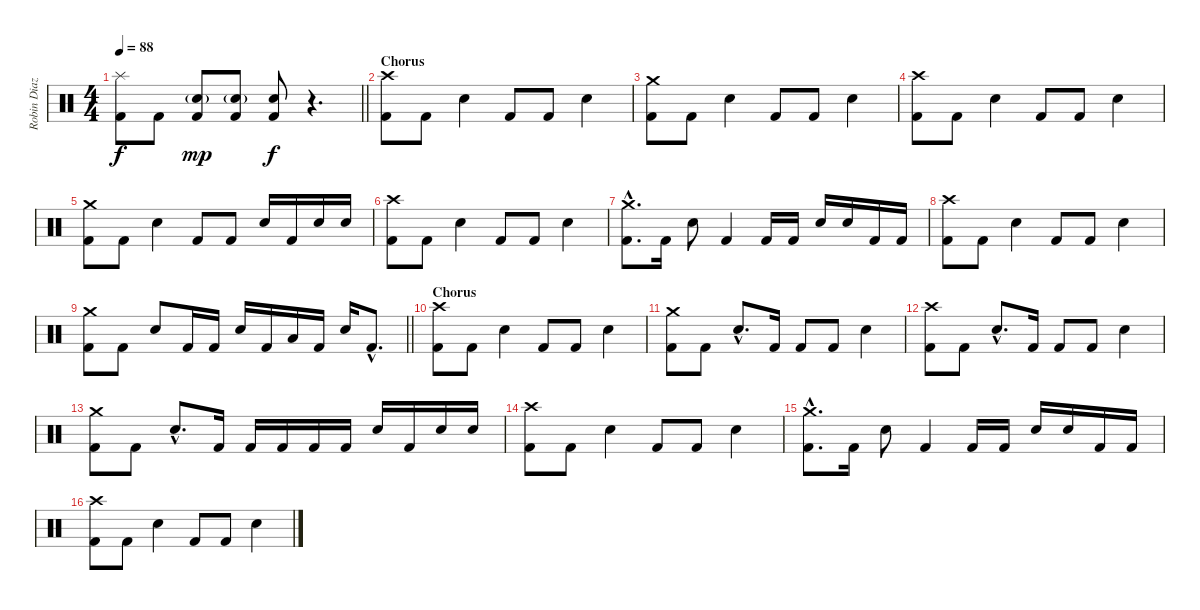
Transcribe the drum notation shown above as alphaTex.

\track ("Robin Diaz (Drums)" "Robin Diaz") {instrument percussion}
\staff {score}
\articulation defaults
\ts (4 4)
\tempo 88
\clef neutral
\barLineRight lightlight
\ks c
("Splash (hit)" "Kick (hit) 2").8{dy f} "Kick (hit) 2".8 ("Electric Snare (hit)"{g} "Kick (hit) 2").8{dy mp} ("Electric Snare (hit)"{g} "Kick (hit) 2").8 ("Electric Snare (hit)" "Kick (hit) 2").8{dy f} r.4{d} |
\section ("" "Chorus")
("Crash high (hit)" "Kick (hit) 2").8 "Kick (hit) 2".8 "Electric Snare (hit)".4 "Kick (hit) 2".8 "Kick (hit) 2".8 "Electric Snare (hit)".4 |
("Crash medium (hit)" "Kick (hit) 2").8 "Kick (hit) 2".8 "Electric Snare (hit)".4 "Kick (hit) 2".8 "Kick (hit) 2".8 "Electric Snare (hit)".4 |
("Crash high (hit)" "Kick (hit) 2").8 "Kick (hit) 2".8 "Electric Snare (hit)".4 "Kick (hit) 2".8 "Kick (hit) 2".8 "Electric Snare (hit)".4 |
("Crash medium (hit)" "Kick (hit) 2").8 "Kick (hit) 2".8 "Electric Snare (hit)".4 "Kick (hit) 2".8 "Kick (hit) 2".8 "Electric Snare (hit)".16 "Kick (hit) 2".16 "Electric Snare (hit)".16 "Electric Snare (hit)".16 |
("Crash high (hit)" "Kick (hit) 2").8 "Kick (hit) 2".8 "Electric Snare (hit)".4 "Kick (hit) 2".8 "Kick (hit) 2".8 "Electric Snare (hit)".4 |
("Crash medium (hit)"{hac} "Kick (hit) 2"{hac}).8{d} "Kick (hit) 2".16 "Electric Snare (hit)".8 "Kick (hit) 2".4 "Kick (hit) 2".16 "Kick (hit) 2".16 "Electric Snare (hit)".16 "Electric Snare (hit)".16 "Kick (hit) 2".16 "Kick (hit) 2".16 |
("Crash high (hit)" "Kick (hit) 2").8 "Kick (hit) 2".8 "Electric Snare (hit)".4 "Kick (hit) 2".8 "Kick (hit) 2".8 "Electric Snare (hit)".4 |
\barLineRight lightlight
("Crash medium (hit)" "Kick (hit) 2").8 "Kick (hit) 2".8 "Electric Snare (hit)".8 "Kick (hit) 2".16 "Kick (hit) 2".16 "Electric Snare (hit)".16 "Kick (hit) 2".16 "Low Floor Tom (hit)".16 "Kick (hit) 2".16 "Electric Snare (hit)".16 "Kick (hit) 2"{hac}.8{d} |
\section ("" "Chorus")
("Crash high (hit)" "Kick (hit) 2").8 "Kick (hit) 2".8 "Electric Snare (hit)".4 "Kick (hit) 2".8 "Kick (hit) 2".8 "Electric Snare (hit)".4 |
("Crash medium (hit)" "Kick (hit) 2").8 "Kick (hit) 2".8 "Electric Snare (hit)"{hac}.8{d} "Kick (hit) 2".16 "Kick (hit) 2".8 "Kick (hit) 2".8 "Electric Snare (hit)".4 |
("Crash high (hit)" "Kick (hit) 2").8 "Kick (hit) 2".8 "Electric Snare (hit)"{hac}.8{d} "Kick (hit) 2".16 "Kick (hit) 2".8 "Kick (hit) 2".8 "Electric Snare (hit)".4 |
("Crash medium (hit)" "Kick (hit) 2").8 "Kick (hit) 2".8 "Electric Snare (hit)"{hac}.8{d} "Kick (hit) 2".16 "Kick (hit) 2".16 "Kick (hit) 2".16 "Kick (hit) 2".16 "Kick (hit) 2".16 "Electric Snare (hit)".16 "Kick (hit) 2".16 "Electric Snare (hit)".16 "Electric Snare (hit)".16 |
("Crash high (hit)" "Kick (hit) 2").8 "Kick (hit) 2".8 "Electric Snare (hit)".4 "Kick (hit) 2".8 "Kick (hit) 2".8 "Electric Snare (hit)".4 |
("Crash medium (hit)"{hac} "Kick (hit) 2"{hac}).8{d} "Kick (hit) 2".16 "Electric Snare (hit)".8 "Kick (hit) 2".4 "Kick (hit) 2".16 "Kick (hit) 2".16 "Electric Snare (hit)".16 "Electric Snare (hit)".16 "Kick (hit) 2".16 "Kick (hit) 2".16 |
("Crash high (hit)" "Kick (hit) 2").8 "Kick (hit) 2".8 "Electric Snare (hit)".4 "Kick (hit) 2".8 "Kick (hit) 2".8 "Electric Snare (hit)".4
